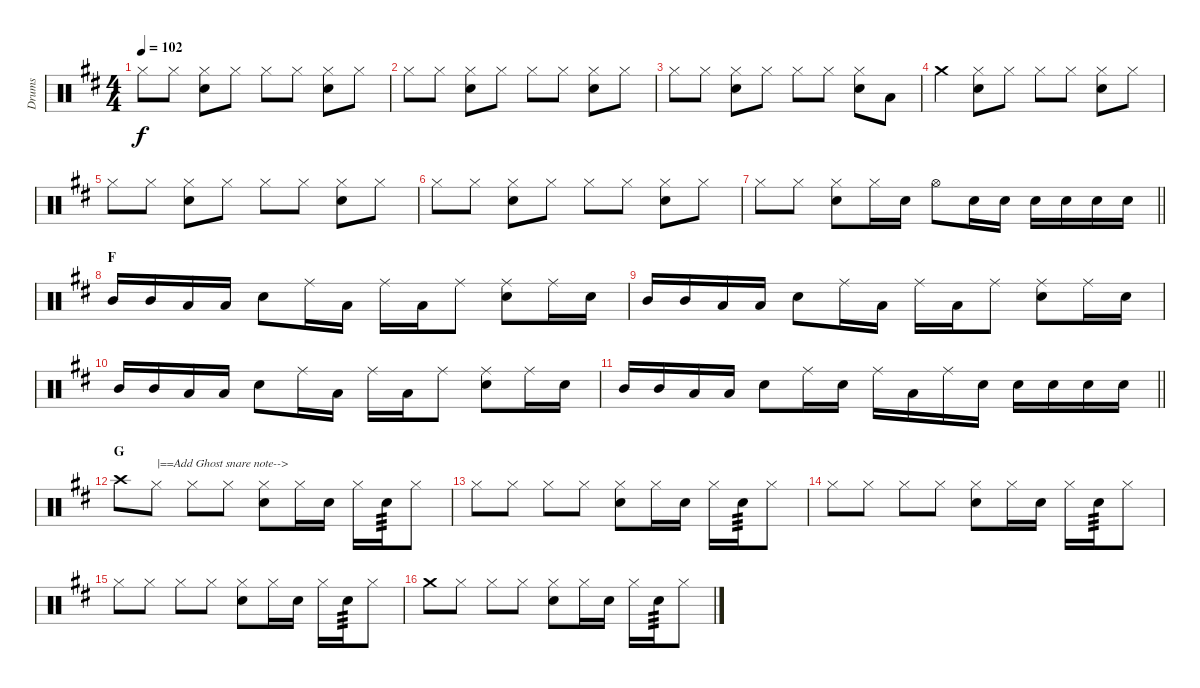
\track ("Drums" "Drums") {instrument percussion}
\staff {score}
\articulation defaults
\ts (4 4)
\tempo 102
\clef neutral
\ks d "Hi-Hat (closed)".8{dy f} "Hi-Hat (closed)".8
("Hi-Hat (closed)" "Snare (hit) 2").8 "Hi-Hat (closed)".8 "Hi-Hat (closed)".8 "Hi-Hat (closed)".8 ("Hi-Hat (closed)" "Snare (hit) 2").8 "Hi-Hat (closed)".8 |
"Hi-Hat (closed)".8 "Hi-Hat (closed)".8 ("Hi-Hat (closed)" "Snare (hit) 2").8 "Hi-Hat (closed)".8 "Hi-Hat (closed)".8 "Hi-Hat (closed)".8 ("Hi-Hat (closed)" "Snare (hit) 2").8 "Hi-Hat (closed)".8 |
"Hi-Hat (closed)".8 "Hi-Hat (closed)".8 ("Hi-Hat (closed)" "Snare (hit) 2").8 "Hi-Hat (closed)".8 "Hi-Hat (closed)".8 "Hi-Hat (closed)".8 ("Hi-Hat (closed)" "Snare (hit) 2").8 "Low Tom (hit)".8 |
"Crash medium (hit)".4 ("Hi-Hat (closed)" "Snare (hit) 2").8 "Hi-Hat (closed)".8 "Hi-Hat (closed)".8 "Hi-Hat (closed)".8 ("Hi-Hat (closed)" "Snare (hit) 2").8 "Hi-Hat (closed)".8 |
"Hi-Hat (closed)".8 "Hi-Hat (closed)".8 ("Hi-Hat (closed)" "Snare (hit) 2").8 "Hi-Hat (closed)".8 "Hi-Hat (closed)".8 "Hi-Hat (closed)".8 ("Hi-Hat (closed)" "Snare (hit) 2").8 "Hi-Hat (closed)".8 |
"Hi-Hat (closed)".8 "Hi-Hat (closed)".8 ("Hi-Hat (closed)" "Snare (hit) 2").8 "Hi-Hat (closed)".8 "Hi-Hat (closed)".8 "Hi-Hat (closed)".8 ("Hi-Hat (closed)" "Snare (hit) 2").8 "Hi-Hat (closed)".8 |
\barLineRight lightlight "Hi-Hat (closed)".8 "Hi-Hat (closed)".8
("Hi-Hat (closed)" "Snare (hit) 2").8 "Hi-Hat (closed)".16 "Snare (hit) 2".16 "Hi-Hat (open)".8 "Snare (hit) 2".16 "Snare (hit) 2".16 "Snare (hit) 2".16 "Snare (hit) 2".16 "Snare (hit) 2".16 "Snare (hit) 2".16 |
\section ("" "F")
"Mid Tom (hit)".16 "Mid Tom (hit)".16 "Low Tom (hit)".16 "Low Tom (hit)".16 "Snare (hit) 2".8 "Ride (middle)".16 "Low Tom (hit)".16 "Ride (middle)".16 "Low Tom (hit)".16 "Ride (middle)".8 ("Ride (middle)" "Snare (hit) 2").8 "Ride (middle)".16 "Snare (hit) 2".16 |
"Mid Tom (hit)".16 "Mid Tom (hit)".16 "Low Tom (hit)".16 "Low Tom (hit)".16 "Snare (hit) 2".8 "Ride (middle)".16 "Low Tom (hit)".16 "Ride (middle)".16 "Low Tom (hit)".16 "Ride (middle)".8 ("Ride (middle)" "Snare (hit) 2").8 "Ride (middle)".16 "Snare (hit) 2".16 |
"Mid Tom (hit)".16 "Mid Tom (hit)".16 "Low Tom (hit)".16 "Low Tom (hit)".16 "Snare (hit) 2".8 "Ride (middle)".16 "Low Tom (hit)".16 "Ride (middle)".16 "Low Tom (hit)".16 "Ride (middle)".8 ("Ride (middle)" "Snare (hit) 2").8 "Ride (middle)".16 "Snare (hit) 2".16 |
\barLineRight lightlight "Mid Tom (hit)".16 "Mid Tom (hit)".16 "Low Tom (hit)".16 "Low Tom (hit)".16 "Snare (hit) 2".8 "Ride (middle)".16 "Snare (hit) 2".16 "Ride (middle)".16 "Low Tom (hit)".16 "Ride (middle)".16 "Snare (hit) 2".16 "Snare (hit) 2".16 "Snare (hit) 2".16 "Snare (hit) 2".16 "Snare (hit) 2".16
|
\section ("" "G")
"Crash high (hit)".8 "Hi-Hat (closed)".8{txt "|==Add Ghost snare note-->"} "Hi-Hat (closed)".8 "Hi-Hat (closed)".8 ("Hi-Hat (closed)" "Snare (hit) 2").8 "Hi-Hat (closed)".16 "Snare (hit) 2".16 "Hi-Hat (closed)".16 "Snare (hit) 2".16{tp 3} "Hi-Hat (closed)".8 |
"Hi-Hat (closed)".8 "Hi-Hat (closed)".8 "Hi-Hat (closed)".8 "Hi-Hat (closed)".8 ("Hi-Hat (closed)" "Snare (hit) 2").8 "Hi-Hat (closed)".16 "Snare (hit) 2".16 "Hi-Hat (closed)".16 "Snare (hit) 2".16{tp 3} "Hi-Hat (closed)".8 |
"Hi-Hat (closed)".8 "Hi-Hat (closed)".8 "Hi-Hat (closed)".8 "Hi-Hat (closed)".8 ("Hi-Hat (closed)" "Snare (hit) 2").8 "Hi-Hat (closed)".16 "Snare (hit) 2".16 "Hi-Hat (closed)".16 "Snare (hit) 2".16{tp 3} "Hi-Hat (closed)".8 |
"Hi-Hat (closed)".8 "Hi-Hat (closed)".8 "Hi-Hat (closed)".8 "Hi-Hat (closed)".8 ("Hi-Hat (closed)" "Snare (hit) 2").8 "Hi-Hat (closed)".16 "Snare (hit) 2".16 "Hi-Hat (closed)".16 "Snare (hit) 2".16{tp 3} "Hi-Hat (closed)".8 |
"Crash medium (hit)".8 "Hi-Hat (closed)".8 "Hi-Hat (closed)".8 "Hi-Hat (closed)".8 ("Hi-Hat (closed)" "Snare (hit) 2").8 "Hi-Hat (closed)".16 "Snare (hit) 2".16 "Hi-Hat (closed)".16 "Snare (hit) 2".16{tp 3} "Hi-Hat (closed)".8
